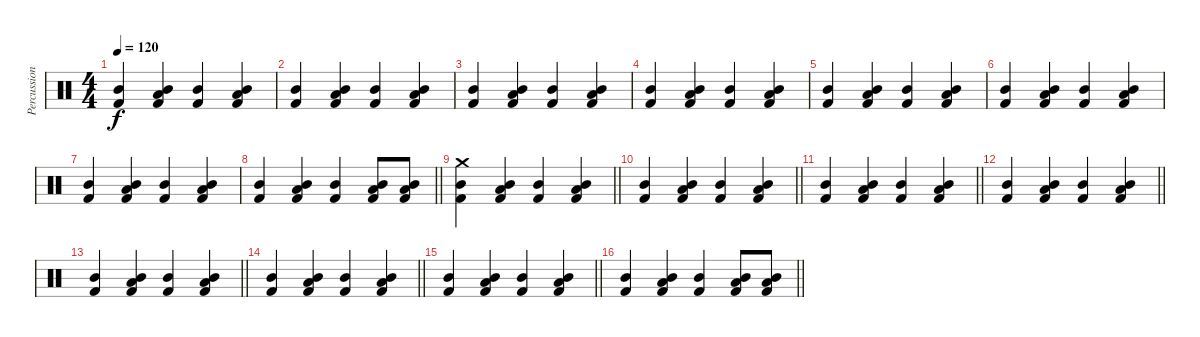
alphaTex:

\track ("Percussion" "Percussion") {instrument percussion}
\staff {score}
\articulation defaults
\ts (4 4)
\section ("" "")
\tempo 120
\clef neutral
\ks c
("Mid Tom (hit)" "Kick (hit) 2").4{dy f} ("Mid Tom (hit)" "Low Floor Tom (hit)" "Kick (hit) 2").4 ("Mid Tom (hit)" "Kick (hit) 2").4 ("Mid Tom (hit)" "Low Floor Tom (hit)" "Kick (hit) 2").4 |
("Mid Tom (hit)" "Kick (hit) 2").4 ("Mid Tom (hit)" "Low Floor Tom (hit)" "Kick (hit) 2").4 ("Mid Tom (hit)" "Kick (hit) 2").4 ("Mid Tom (hit)" "Low Floor Tom (hit)" "Kick (hit) 2").4 |
("Mid Tom (hit)" "Kick (hit) 2").4 ("Mid Tom (hit)" "Low Floor Tom (hit)" "Kick (hit) 2").4 ("Mid Tom (hit)" "Kick (hit) 2").4 ("Mid Tom (hit)" "Low Floor Tom (hit)" "Kick (hit) 2").4 |
("Mid Tom (hit)" "Kick (hit) 2").4 ("Mid Tom (hit)" "Low Floor Tom (hit)" "Kick (hit) 2").4 ("Mid Tom (hit)" "Kick (hit) 2").4 ("Mid Tom (hit)" "Low Floor Tom (hit)" "Kick (hit) 2").4 |
("Mid Tom (hit)" "Kick (hit) 2").4 ("Mid Tom (hit)" "Low Floor Tom (hit)" "Kick (hit) 2").4 ("Mid Tom (hit)" "Kick (hit) 2").4 ("Mid Tom (hit)" "Low Floor Tom (hit)" "Kick (hit) 2").4 |
("Mid Tom (hit)" "Kick (hit) 2").4 ("Mid Tom (hit)" "Low Floor Tom (hit)" "Kick (hit) 2").4 ("Mid Tom (hit)" "Kick (hit) 2").4 ("Mid Tom (hit)" "Low Floor Tom (hit)" "Kick (hit) 2").4 |
("Mid Tom (hit)" "Kick (hit) 2").4 ("Mid Tom (hit)" "Low Floor Tom (hit)" "Kick (hit) 2").4 ("Mid Tom (hit)" "Kick (hit) 2").4 ("Mid Tom (hit)" "Low Floor Tom (hit)" "Kick (hit) 2").4 |
\barLineRight lightlight
("Mid Tom (hit)" "Kick (hit) 2").4 ("Mid Tom (hit)" "Low Floor Tom (hit)" "Kick (hit) 2").4 ("Mid Tom (hit)" "Kick (hit) 2").4 ("Mid Tom (hit)" "Low Floor Tom (hit)" "Kick (hit) 2").8 ("Mid Tom (hit)" "Low Floor Tom (hit)" "Kick (hit) 2").8 |
\section ("" "")
\barLineRight lightlight
("Crash medium (hit)" "Mid Tom (hit)" "Kick (hit) 2").4 ("Mid Tom (hit)" "Low Floor Tom (hit)" "Kick (hit) 2").4 ("Mid Tom (hit)" "Kick (hit) 2").4 ("Mid Tom (hit)" "Low Floor Tom (hit)" "Kick (hit) 2").4 |
\barLineRight lightlight
("Mid Tom (hit)" "Kick (hit) 2").4 ("Mid Tom (hit)" "Low Floor Tom (hit)" "Kick (hit) 2").4 ("Mid Tom (hit)" "Kick (hit) 2").4 ("Mid Tom (hit)" "Low Floor Tom (hit)" "Kick (hit) 2").4 |
\barLineRight lightlight
("Mid Tom (hit)" "Kick (hit) 2").4 ("Mid Tom (hit)" "Low Floor Tom (hit)" "Kick (hit) 2").4 ("Mid Tom (hit)" "Kick (hit) 2").4 ("Mid Tom (hit)" "Low Floor Tom (hit)" "Kick (hit) 2").4 |
\barLineRight lightlight
("Mid Tom (hit)" "Kick (hit) 2").4 ("Mid Tom (hit)" "Low Floor Tom (hit)" "Kick (hit) 2").4 ("Mid Tom (hit)" "Kick (hit) 2").4 ("Mid Tom (hit)" "Low Floor Tom (hit)" "Kick (hit) 2").4 |
\barLineRight lightlight
("Mid Tom (hit)" "Kick (hit) 2").4 ("Mid Tom (hit)" "Low Floor Tom (hit)" "Kick (hit) 2").4 ("Mid Tom (hit)" "Kick (hit) 2").4 ("Mid Tom (hit)" "Low Floor Tom (hit)" "Kick (hit) 2").4 |
\barLineRight lightlight
("Mid Tom (hit)" "Kick (hit) 2").4 ("Mid Tom (hit)" "Low Floor Tom (hit)" "Kick (hit) 2").4 ("Mid Tom (hit)" "Kick (hit) 2").4 ("Mid Tom (hit)" "Low Floor Tom (hit)" "Kick (hit) 2").4 |
\barLineRight lightlight
("Mid Tom (hit)" "Kick (hit) 2").4 ("Mid Tom (hit)" "Low Floor Tom (hit)" "Kick (hit) 2").4 ("Mid Tom (hit)" "Kick (hit) 2").4 ("Mid Tom (hit)" "Low Floor Tom (hit)" "Kick (hit) 2").4 |
\barLineRight lightlight
("Mid Tom (hit)" "Kick (hit) 2").4 ("Mid Tom (hit)" "Low Floor Tom (hit)" "Kick (hit) 2").4 ("Mid Tom (hit)" "Kick (hit) 2").4 ("Mid Tom (hit)" "Low Floor Tom (hit)" "Kick (hit) 2").8 ("Mid Tom (hit)" "Low Floor Tom (hit)" "Kick (hit) 2").8
